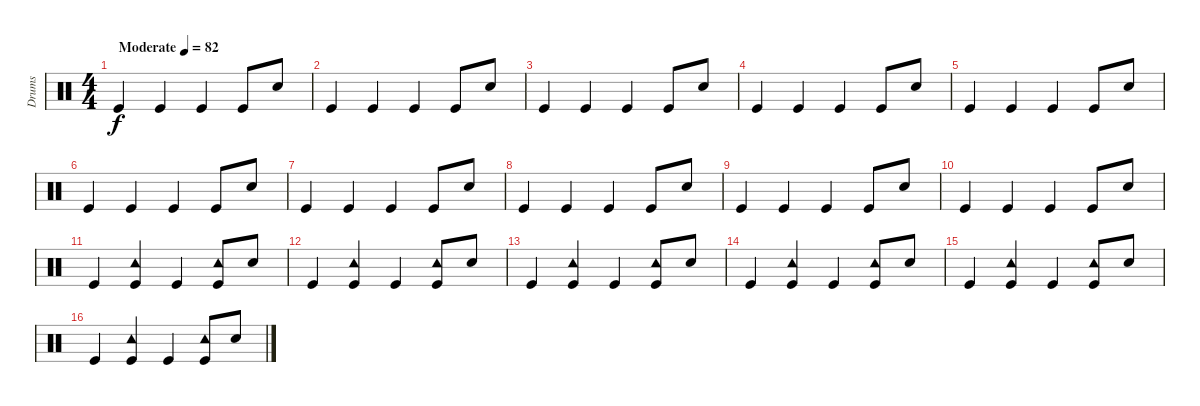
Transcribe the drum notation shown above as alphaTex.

\track ("Drums" "Drums") {instrument percussion}
\staff {score}
\articulation defaults
\ts (4 4)
\tempo (82 "Moderate")
\clef neutral
\ks c "Kick (hit)".4{dy f} "Kick (hit)".4 "Kick (hit)".4 "Kick (hit)".8 "Electric Snare (hit)".8
|
"Kick (hit)".4 "Kick (hit)".4 "Kick (hit)".4 "Kick (hit)".8 "Electric Snare (hit)".8 |
"Kick (hit)".4 "Kick (hit)".4 "Kick (hit)".4 "Kick (hit)".8 "Electric Snare (hit)".8 |
"Kick (hit)".4 "Kick (hit)".4 "Kick (hit)".4 "Kick (hit)".8 "Electric Snare (hit)".8 |
"Kick (hit)".4 "Kick (hit)".4 "Kick (hit)".4 "Kick (hit)".8 "Electric Snare (hit)".8 |
"Kick (hit)".4 "Kick (hit)".4 "Kick (hit)".4 "Kick (hit)".8 "Electric Snare (hit)".8 |
"Kick (hit)".4 "Kick (hit)".4 "Kick (hit)".4 "Kick (hit)".8 "Electric Snare (hit)".8 |
"Kick (hit)".4 "Kick (hit)".4 "Kick (hit)".4 "Kick (hit)".8 "Electric Snare (hit)".8 |
"Kick (hit)".4 "Kick (hit)".4 "Kick (hit)".4 "Kick (hit)".8 "Electric Snare (hit)".8 |
"Kick (hit)".4 "Kick (hit)".4 "Kick (hit)".4 "Kick (hit)".8 "Electric Snare (hit)".8 |
"Kick (hit)".4 ("Tambourine (hit)" "Kick (hit)").4 "Kick (hit)".4 ("Tambourine (hit)" "Kick (hit)").8 "Electric Snare (hit)".8 |
"Kick (hit)".4 ("Tambourine (hit)" "Kick (hit)").4 "Kick (hit)".4 ("Tambourine (hit)" "Kick (hit)").8 "Electric Snare (hit)".8 |
"Kick (hit)".4 ("Tambourine (hit)" "Kick (hit)").4 "Kick (hit)".4 ("Tambourine (hit)" "Kick (hit)").8 "Electric Snare (hit)".8 |
"Kick (hit)".4 ("Tambourine (hit)" "Kick (hit)").4 "Kick (hit)".4 ("Tambourine (hit)" "Kick (hit)").8 "Electric Snare (hit)".8 |
"Kick (hit)".4 ("Tambourine (hit)" "Kick (hit)").4 "Kick (hit)".4 ("Tambourine (hit)" "Kick (hit)").8 "Electric Snare (hit)".8 |
"Kick (hit)".4 ("Tambourine (hit)" "Kick (hit)").4 "Kick (hit)".4 ("Tambourine (hit)" "Kick (hit)").8 "Electric Snare (hit)".8
